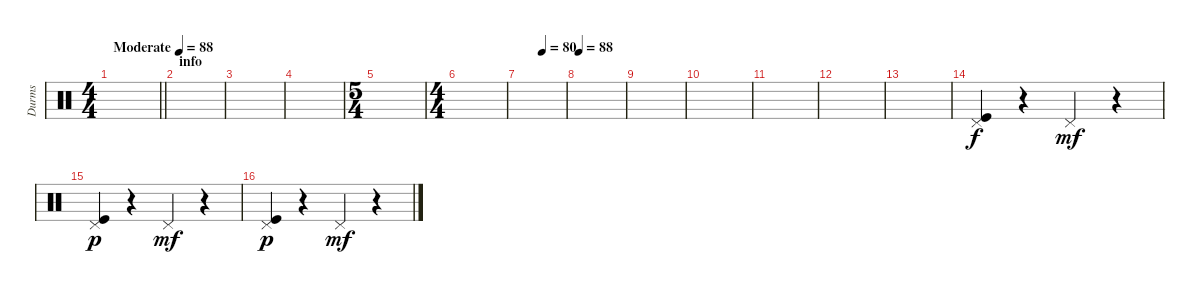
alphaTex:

\track ("Durms" "Durms") {instrument percussion}
\staff {score}
\articulation defaults
\ts (4 4)
\tempo (88 "Moderate")
\clef neutral
\barLineRight lightlight
\ks c
|
\section ("" "info ")
|
|
|
\ts (5 4)
|
\ts (4 4)
|
\tempo (80 0.5)
|
\tempo 88
|
|
|
|
|
|
("Pedal Hi-Hat (hit)" "Kick (hit)").4 r.4 "Pedal Hi-Hat (hit)".4{dy mf} r.4 |
("Pedal Hi-Hat (hit)" "Kick (hit)").4{dy p} r.4 "Pedal Hi-Hat (hit)".4{dy mf} r.4 |
("Pedal Hi-Hat (hit)" "Kick (hit)").4{dy p} r.4 "Pedal Hi-Hat (hit)".4{dy mf} r.4
